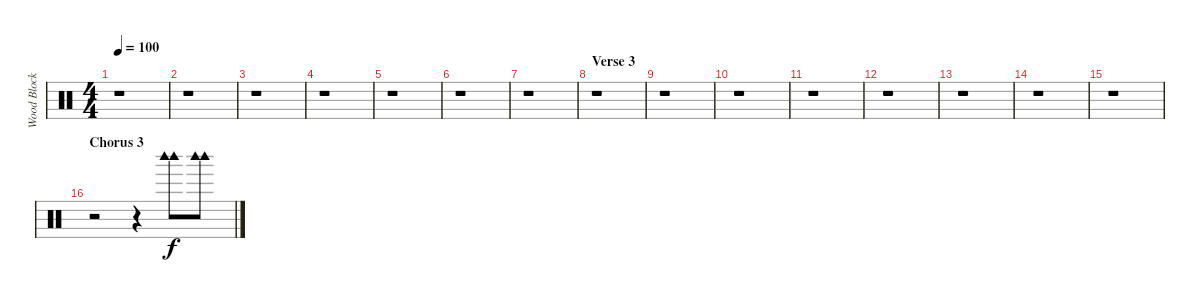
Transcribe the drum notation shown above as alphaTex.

\track ("Wood Block - Chad" "Wood Block") {instrument percussion}
\staff {score}
\articulation defaults
\ts (4 4)
\tempo 100
\clef neutral
\ks c
r.1{dy f} |
r.1 |
r.1 |
r.1 |
r.1 |
r.1 |
r.1 |
\section ("" "Verse 3")
r.1 |
r.1 |
r.1 |
r.1 |
r.1 |
r.1 |
r.1 |
r.1 |
\section ("" "Chorus 3")
r.2 r.4 ("Woodblock high (hit)" "Woodblock high (hit)").8 ("Woodblock high (hit)" "Woodblock high (hit)").8
